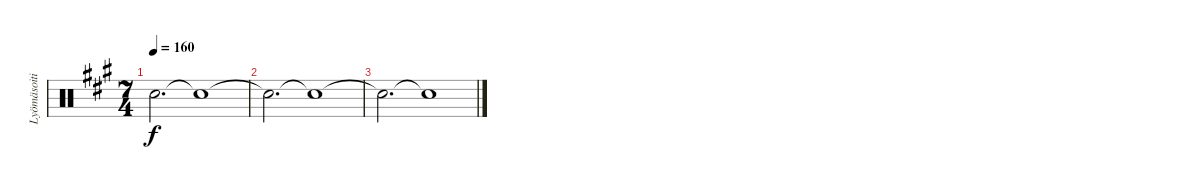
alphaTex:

\track ("Lyömäsoitin" "Lyömäsoiti") {instrument percussion}
\staff {score}
\articulation defaults
\ts (7 4)
\tempo 160
\clef neutral
\ks a "Snare (hit)"{t}.2{d dy f} "Snare (hit)"{t}.1
|
"Snare (hit)"{t}.2{d} "Snare (hit)"{t}.1 |
"Snare (hit)"{t}.2{d} "Snare (hit)"{t}.1
